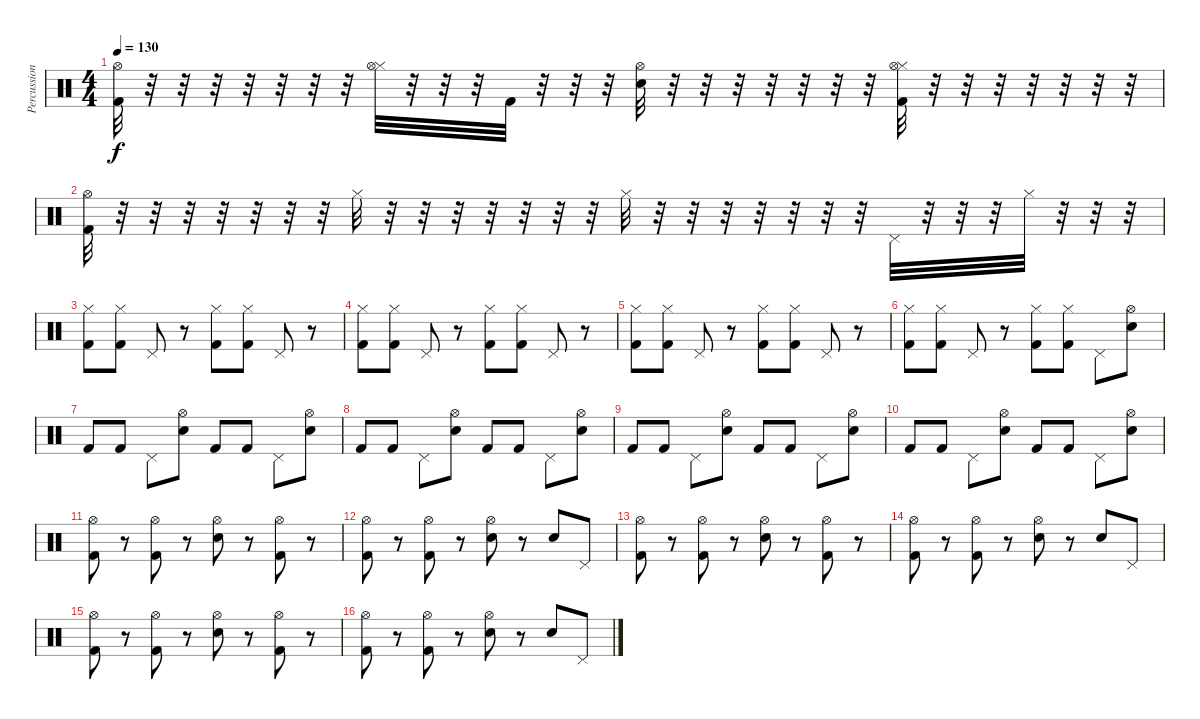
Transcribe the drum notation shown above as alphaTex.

\track ("Percussion" "Percussion") {instrument percussion}
\staff {score}
\articulation defaults
\ts (4 4)
\tempo 130
\clef neutral
\ks c
("Kick (hit) 2" "Hi-Hat (open)").32{dy f} r.32 r.32 r.32 r.32 r.32 r.32 r.32 ("Hi-Hat (closed)" "Hi-Hat (open)").32 r.32 r.32 r.32 "Kick (hit) 2".32 r.32 r.32 r.32 ("Electric Snare (hit)" "Hi-Hat (open)").32 r.32 r.32 r.32 r.32 r.32 r.32 r.32 ("Kick (hit) 2" "Hi-Hat (closed)" "Hi-Hat (open)").32 r.32 r.32 r.32 r.32 r.32 r.32 r.32 |
("Kick (hit) 2" "Hi-Hat (open)").32 r.32 r.32 r.32 r.32 r.32 r.32 r.32 "Hi-Hat (closed)".32 r.32 r.32 r.32 r.32 r.32 r.32 r.32 "Hi-Hat (closed)".32 r.32 r.32 r.32 r.32 r.32 r.32 r.32 "Pedal Hi-Hat (hit)".32 r.32 r.32 r.32 "Hi-Hat (closed)".32 r.32 r.32 r.32 |
("Kick (hit) 2" "Hi-Hat (closed)").8 ("Kick (hit) 2" "Hi-Hat (closed)").8 "Pedal Hi-Hat (hit)".8 r.8 ("Kick (hit) 2" "Hi-Hat (closed)").8 ("Kick (hit) 2" "Hi-Hat (closed)").8 "Pedal Hi-Hat (hit)".8 r.8 |
("Kick (hit) 2" "Hi-Hat (closed)").8 ("Kick (hit) 2" "Hi-Hat (closed)").8 "Pedal Hi-Hat (hit)".8 r.8 ("Kick (hit) 2" "Hi-Hat (closed)").8 ("Kick (hit) 2" "Hi-Hat (closed)").8 "Pedal Hi-Hat (hit)".8 r.8 |
("Kick (hit) 2" "Hi-Hat (closed)").8 ("Kick (hit) 2" "Hi-Hat (closed)").8 "Pedal Hi-Hat (hit)".8 r.8 ("Kick (hit) 2" "Hi-Hat (closed)").8 ("Kick (hit) 2" "Hi-Hat (closed)").8 "Pedal Hi-Hat (hit)".8 r.8 |
("Kick (hit) 2" "Hi-Hat (closed)").8 ("Kick (hit) 2" "Hi-Hat (closed)").8 "Pedal Hi-Hat (hit)".8 r.8 ("Kick (hit) 2" "Hi-Hat (closed)").8 ("Kick (hit) 2" "Hi-Hat (closed)").8 "Pedal Hi-Hat (hit)".8 ("Electric Snare (hit)" "Hi-Hat (open)").8 |
"Kick (hit) 2".8 "Kick (hit) 2".8 "Pedal Hi-Hat (hit)".8 ("Electric Snare (hit)" "Hi-Hat (open)").8 "Kick (hit) 2".8 "Kick (hit) 2".8 "Pedal Hi-Hat (hit)".8 ("Electric Snare (hit)" "Hi-Hat (open)").8 |
"Kick (hit) 2".8 "Kick (hit) 2".8 "Pedal Hi-Hat (hit)".8 ("Electric Snare (hit)" "Hi-Hat (open)").8 "Kick (hit) 2".8 "Kick (hit) 2".8 "Pedal Hi-Hat (hit)".8 ("Electric Snare (hit)" "Hi-Hat (open)").8 |
"Kick (hit) 2".8 "Kick (hit) 2".8 "Pedal Hi-Hat (hit)".8 ("Electric Snare (hit)" "Hi-Hat (open)").8 "Kick (hit) 2".8 "Kick (hit) 2".8 "Pedal Hi-Hat (hit)".8 ("Electric Snare (hit)" "Hi-Hat (open)").8 |
"Kick (hit) 2".8 "Kick (hit) 2".8 "Pedal Hi-Hat (hit)".8 ("Electric Snare (hit)" "Hi-Hat (open)").8 "Kick (hit) 2".8 "Kick (hit) 2".8 "Pedal Hi-Hat (hit)".8 ("Electric Snare (hit)" "Hi-Hat (open)").8 |
("Kick (hit) 2" "Hi-Hat (open)").8 r.8 ("Kick (hit) 2" "Hi-Hat (open)").8 r.8 ("Electric Snare (hit)" "Hi-Hat (open)").8 r.8 ("Kick (hit) 2" "Hi-Hat (open)").8 r.8 |
("Kick (hit) 2" "Hi-Hat (open)").8 r.8 ("Kick (hit) 2" "Hi-Hat (open)").8 r.8 ("Electric Snare (hit)" "Hi-Hat (open)").8 r.8 "Snare (hit) 2".8 "Pedal Hi-Hat (hit)".8 |
("Kick (hit) 2" "Hi-Hat (open)").8 r.8 ("Kick (hit) 2" "Hi-Hat (open)").8 r.8 ("Electric Snare (hit)" "Hi-Hat (open)").8 r.8 ("Kick (hit) 2" "Hi-Hat (open)").8 r.8 |
("Kick (hit) 2" "Hi-Hat (open)").8 r.8 ("Kick (hit) 2" "Hi-Hat (open)").8 r.8 ("Electric Snare (hit)" "Hi-Hat (open)").8 r.8 "Snare (hit) 2".8 "Pedal Hi-Hat (hit)".8 |
("Kick (hit) 2" "Hi-Hat (open)").8 r.8 ("Kick (hit) 2" "Hi-Hat (open)").8 r.8 ("Electric Snare (hit)" "Hi-Hat (open)").8 r.8 ("Kick (hit) 2" "Hi-Hat (open)").8 r.8 |
("Kick (hit) 2" "Hi-Hat (open)").8 r.8 ("Kick (hit) 2" "Hi-Hat (open)").8 r.8 ("Electric Snare (hit)" "Hi-Hat (open)").8 r.8 "Snare (hit) 2".8 "Pedal Hi-Hat (hit)".8
